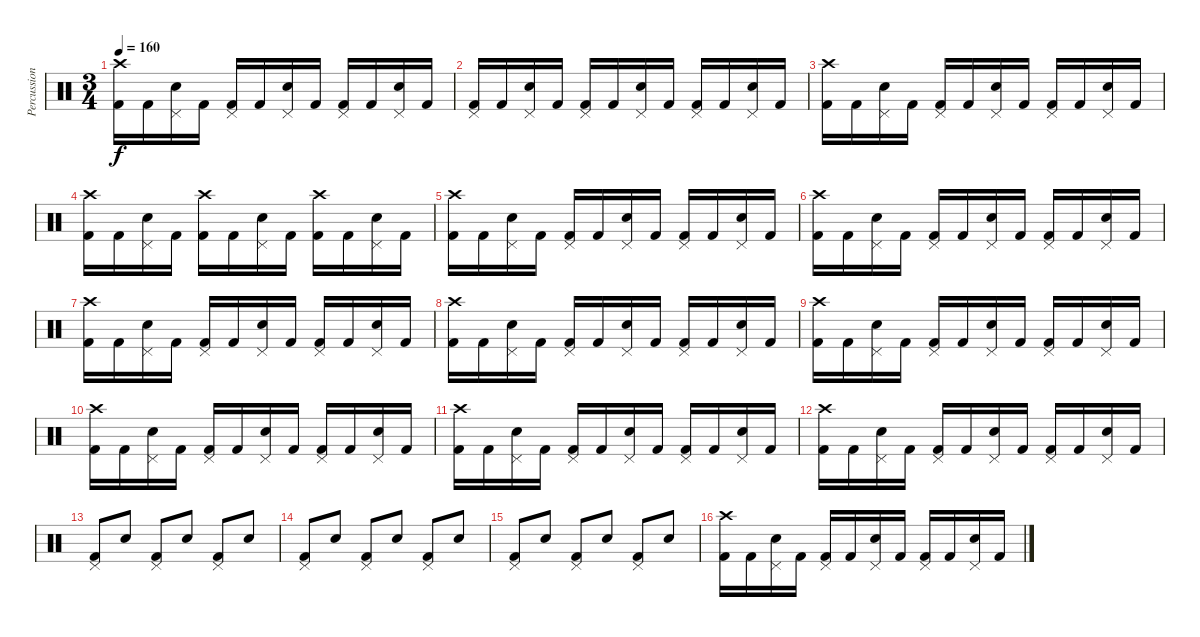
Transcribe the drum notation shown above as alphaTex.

\track ("Percussion" "Percussion") {instrument percussion}
\staff {score}
\articulation defaults
\ts (3 4)
\tempo 160
\clef neutral
\ks c
("Crash high (hit)" "Kick (hit) 2").16{dy f} "Kick (hit) 2".16 ("Pedal Hi-Hat (hit)" "Snare (hit) 2").16 "Kick (hit) 2".16 ("Pedal Hi-Hat (hit)" "Kick (hit) 2").16 "Kick (hit) 2".16 ("Pedal Hi-Hat (hit)" "Snare (hit) 2").16 "Kick (hit) 2".16 ("Pedal Hi-Hat (hit)" "Kick (hit) 2").16 "Kick (hit) 2".16 ("Pedal Hi-Hat (hit)" "Snare (hit) 2").16 "Kick (hit) 2".16 |
("Pedal Hi-Hat (hit)" "Kick (hit) 2").16 "Kick (hit) 2".16 ("Pedal Hi-Hat (hit)" "Snare (hit) 2").16 "Kick (hit) 2".16 ("Pedal Hi-Hat (hit)" "Kick (hit) 2").16 "Kick (hit) 2".16 ("Pedal Hi-Hat (hit)" "Snare (hit) 2").16 "Kick (hit) 2".16 ("Pedal Hi-Hat (hit)" "Kick (hit) 2").16 "Kick (hit) 2".16 ("Pedal Hi-Hat (hit)" "Snare (hit) 2").16 "Kick (hit) 2".16 |
("Crash high (hit)" "Kick (hit) 2").16 "Kick (hit) 2".16 ("Pedal Hi-Hat (hit)" "Snare (hit) 2").16 "Kick (hit) 2".16 ("Pedal Hi-Hat (hit)" "Kick (hit) 2").16 "Kick (hit) 2".16 ("Pedal Hi-Hat (hit)" "Snare (hit) 2").16 "Kick (hit) 2".16 ("Pedal Hi-Hat (hit)" "Kick (hit) 2").16 "Kick (hit) 2".16 ("Pedal Hi-Hat (hit)" "Snare (hit) 2").16 "Kick (hit) 2".16 |
("Crash high (hit)" "Kick (hit) 2").16 "Kick (hit) 2".16 ("Pedal Hi-Hat (hit)" "Snare (hit) 2").16 "Kick (hit) 2".16 ("Crash high (hit)" "Kick (hit) 2").16 "Kick (hit) 2".16 ("Pedal Hi-Hat (hit)" "Snare (hit) 2").16 "Kick (hit) 2".16 ("Crash high (hit)" "Kick (hit) 2").16 "Kick (hit) 2".16 ("Pedal Hi-Hat (hit)" "Snare (hit) 2").16 "Kick (hit) 2".16 |
("Crash high (hit)" "Kick (hit) 2").16 "Kick (hit) 2".16 ("Pedal Hi-Hat (hit)" "Snare (hit) 2").16 "Kick (hit) 2".16 ("Pedal Hi-Hat (hit)" "Kick (hit) 2").16 "Kick (hit) 2".16 ("Pedal Hi-Hat (hit)" "Snare (hit) 2").16 "Kick (hit) 2".16 ("Pedal Hi-Hat (hit)" "Kick (hit) 2").16 "Kick (hit) 2".16 ("Pedal Hi-Hat (hit)" "Snare (hit) 2").16 "Kick (hit) 2".16 |
("Crash high (hit)" "Kick (hit) 2").16 "Kick (hit) 2".16 ("Pedal Hi-Hat (hit)" "Snare (hit) 2").16 "Kick (hit) 2".16 ("Pedal Hi-Hat (hit)" "Kick (hit) 2").16 "Kick (hit) 2".16 ("Pedal Hi-Hat (hit)" "Snare (hit) 2").16 "Kick (hit) 2".16 ("Pedal Hi-Hat (hit)" "Kick (hit) 2").16 "Kick (hit) 2".16 ("Pedal Hi-Hat (hit)" "Snare (hit) 2").16 "Kick (hit) 2".16 |
("Crash high (hit)" "Kick (hit) 2").16 "Kick (hit) 2".16 ("Pedal Hi-Hat (hit)" "Snare (hit) 2").16 "Kick (hit) 2".16 ("Pedal Hi-Hat (hit)" "Kick (hit) 2").16 "Kick (hit) 2".16 ("Pedal Hi-Hat (hit)" "Snare (hit) 2").16 "Kick (hit) 2".16 ("Pedal Hi-Hat (hit)" "Kick (hit) 2").16 "Kick (hit) 2".16 ("Pedal Hi-Hat (hit)" "Snare (hit) 2").16 "Kick (hit) 2".16 |
("Crash high (hit)" "Kick (hit) 2").16 "Kick (hit) 2".16 ("Pedal Hi-Hat (hit)" "Snare (hit) 2").16 "Kick (hit) 2".16 ("Pedal Hi-Hat (hit)" "Kick (hit) 2").16 "Kick (hit) 2".16 ("Pedal Hi-Hat (hit)" "Snare (hit) 2").16 "Kick (hit) 2".16 ("Pedal Hi-Hat (hit)" "Kick (hit) 2").16 "Kick (hit) 2".16 ("Pedal Hi-Hat (hit)" "Snare (hit) 2").16 "Kick (hit) 2".16 |
("Crash high (hit)" "Kick (hit) 2").16 "Kick (hit) 2".16 ("Pedal Hi-Hat (hit)" "Snare (hit) 2").16 "Kick (hit) 2".16 ("Pedal Hi-Hat (hit)" "Kick (hit) 2").16 "Kick (hit) 2".16 ("Pedal Hi-Hat (hit)" "Snare (hit) 2").16 "Kick (hit) 2".16 ("Pedal Hi-Hat (hit)" "Kick (hit) 2").16 "Kick (hit) 2".16 ("Pedal Hi-Hat (hit)" "Snare (hit) 2").16 "Kick (hit) 2".16 |
("Crash high (hit)" "Kick (hit) 2").16 "Kick (hit) 2".16 ("Pedal Hi-Hat (hit)" "Snare (hit) 2").16 "Kick (hit) 2".16 ("Pedal Hi-Hat (hit)" "Kick (hit) 2").16 "Kick (hit) 2".16 ("Pedal Hi-Hat (hit)" "Snare (hit) 2").16 "Kick (hit) 2".16 ("Pedal Hi-Hat (hit)" "Kick (hit) 2").16 "Kick (hit) 2".16 ("Pedal Hi-Hat (hit)" "Snare (hit) 2").16 "Kick (hit) 2".16 |
("Crash high (hit)" "Kick (hit) 2").16 "Kick (hit) 2".16 ("Pedal Hi-Hat (hit)" "Snare (hit) 2").16 "Kick (hit) 2".16 ("Pedal Hi-Hat (hit)" "Kick (hit) 2").16 "Kick (hit) 2".16 ("Pedal Hi-Hat (hit)" "Snare (hit) 2").16 "Kick (hit) 2".16 ("Pedal Hi-Hat (hit)" "Kick (hit) 2").16 "Kick (hit) 2".16 ("Pedal Hi-Hat (hit)" "Snare (hit) 2").16 "Kick (hit) 2".16 |
("Crash high (hit)" "Kick (hit) 2").16 "Kick (hit) 2".16 ("Pedal Hi-Hat (hit)" "Snare (hit) 2").16 "Kick (hit) 2".16 ("Pedal Hi-Hat (hit)" "Kick (hit) 2").16 "Kick (hit) 2".16 ("Pedal Hi-Hat (hit)" "Snare (hit) 2").16 "Kick (hit) 2".16 ("Pedal Hi-Hat (hit)" "Kick (hit) 2").16 "Kick (hit) 2".16 ("Pedal Hi-Hat (hit)" "Snare (hit) 2").16 "Kick (hit) 2".16 |
("Pedal Hi-Hat (hit)" "Kick (hit) 2").8 "Snare (hit) 2".8 ("Pedal Hi-Hat (hit)" "Kick (hit) 2").8 "Snare (hit) 2".8 ("Pedal Hi-Hat (hit)" "Kick (hit) 2").8 "Snare (hit) 2".8 |
("Pedal Hi-Hat (hit)" "Kick (hit) 2").8 "Snare (hit) 2".8 ("Pedal Hi-Hat (hit)" "Kick (hit) 2").8 "Snare (hit) 2".8 ("Pedal Hi-Hat (hit)" "Kick (hit) 2").8 "Snare (hit) 2".8 |
("Pedal Hi-Hat (hit)" "Kick (hit) 2").8 "Snare (hit) 2".8 ("Pedal Hi-Hat (hit)" "Kick (hit) 2").8 "Snare (hit) 2".8 ("Pedal Hi-Hat (hit)" "Kick (hit) 2").8 "Snare (hit) 2".8 |
("Crash high (hit)" "Kick (hit) 2").16 "Kick (hit) 2".16 ("Pedal Hi-Hat (hit)" "Snare (hit) 2").16 "Kick (hit) 2".16 ("Pedal Hi-Hat (hit)" "Kick (hit) 2").16 "Kick (hit) 2".16 ("Pedal Hi-Hat (hit)" "Snare (hit) 2").16 "Kick (hit) 2".16 ("Pedal Hi-Hat (hit)" "Kick (hit) 2").16 "Kick (hit) 2".16 ("Pedal Hi-Hat (hit)" "Snare (hit) 2").16 "Kick (hit) 2".16
